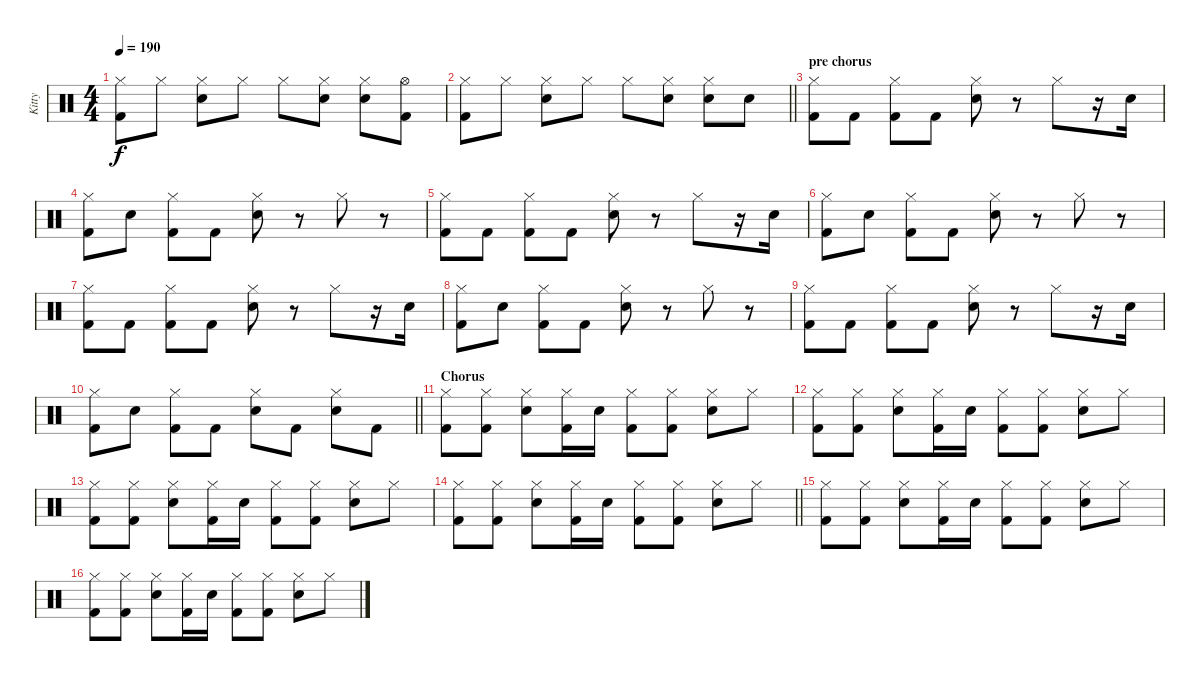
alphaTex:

\track ("Kitty" "Kitty") {instrument percussion}
\staff {score}
\articulation defaults
\ts (4 4)
\tempo 190
\clef neutral
\ks c
("Hi-Hat (closed)" "Kick (hit) 2").8{dy f} "Hi-Hat (closed)".8 ("Hi-Hat (closed)" "Snare (hit) 2").8 "Hi-Hat (closed)".8 "Hi-Hat (closed)".8 ("Hi-Hat (closed)" "Snare (hit) 2").8 ("Hi-Hat (closed)" "Snare (hit) 2").8 ("Hi-Hat (open)" "Kick (hit) 2").8 |
\barLineRight lightlight
("Hi-Hat (closed)" "Kick (hit) 2").8 "Hi-Hat (closed)".8 ("Hi-Hat (closed)" "Snare (hit) 2").8 "Hi-Hat (closed)".8 "Hi-Hat (closed)".8 ("Hi-Hat (closed)" "Snare (hit) 2").8 ("Hi-Hat (closed)" "Snare (hit) 2").8 "Snare (hit) 2".8 |
\section ("" "pre chorus")
("Hi-Hat (closed)" "Kick (hit) 2").8 "Kick (hit) 2".8 ("Hi-Hat (closed)" "Kick (hit) 2").8 "Kick (hit) 2".8 ("Hi-Hat (closed)" "Snare (hit) 2").8 r.8 "Hi-Hat (closed)".8 r.16 "Snare (hit) 2".16 |
("Hi-Hat (closed)" "Kick (hit) 2").8 "Snare (hit) 2".8 ("Hi-Hat (closed)" "Kick (hit) 2").8 "Kick (hit) 2".8 ("Hi-Hat (closed)" "Snare (hit) 2").8 r.8 "Hi-Hat (closed)".8 r.8 |
("Hi-Hat (closed)" "Kick (hit) 2").8 "Kick (hit) 2".8 ("Hi-Hat (closed)" "Kick (hit) 2").8 "Kick (hit) 2".8 ("Hi-Hat (closed)" "Snare (hit) 2").8 r.8 "Hi-Hat (closed)".8 r.16 "Snare (hit) 2".16 |
("Hi-Hat (closed)" "Kick (hit) 2").8 "Snare (hit) 2".8 ("Hi-Hat (closed)" "Kick (hit) 2").8 "Kick (hit) 2".8 ("Hi-Hat (closed)" "Snare (hit) 2").8 r.8 "Hi-Hat (closed)".8 r.8 |
("Hi-Hat (closed)" "Kick (hit) 2").8 "Kick (hit) 2".8 ("Hi-Hat (closed)" "Kick (hit) 2").8 "Kick (hit) 2".8 ("Hi-Hat (closed)" "Snare (hit) 2").8 r.8 "Hi-Hat (closed)".8 r.16 "Snare (hit) 2".16 |
("Hi-Hat (closed)" "Kick (hit) 2").8 "Snare (hit) 2".8 ("Hi-Hat (closed)" "Kick (hit) 2").8 "Kick (hit) 2".8 ("Hi-Hat (closed)" "Snare (hit) 2").8 r.8 "Hi-Hat (closed)".8 r.8 |
("Hi-Hat (closed)" "Kick (hit) 2").8 "Kick (hit) 2".8 ("Hi-Hat (closed)" "Kick (hit) 2").8 "Kick (hit) 2".8 ("Hi-Hat (closed)" "Snare (hit) 2").8 r.8 "Hi-Hat (closed)".8 r.16 "Snare (hit) 2".16 |
\barLineRight lightlight
("Hi-Hat (closed)" "Kick (hit) 2").8 "Snare (hit) 2".8 ("Hi-Hat (closed)" "Kick (hit) 2").8 "Kick (hit) 2".8 ("Hi-Hat (closed)" "Snare (hit) 2").8 "Kick (hit) 2".8 ("Hi-Hat (closed)" "Snare (hit) 2").8 "Kick (hit) 2".8 |
\section ("" "Chorus")
("Hi-Hat (closed)" "Kick (hit) 2").8 ("Hi-Hat (closed)" "Kick (hit) 2").8 ("Hi-Hat (closed)" "Snare (hit) 2").8 ("Hi-Hat (closed)" "Kick (hit) 2").16 "Snare (hit) 2".16 ("Hi-Hat (closed)" "Kick (hit) 2").8 ("Hi-Hat (closed)" "Kick (hit) 2").8 ("Hi-Hat (closed)" "Snare (hit) 2").8 "Hi-Hat (closed)".8 |
("Hi-Hat (closed)" "Kick (hit) 2").8 ("Hi-Hat (closed)" "Kick (hit) 2").8 ("Hi-Hat (closed)" "Snare (hit) 2").8 ("Hi-Hat (closed)" "Kick (hit) 2").16 "Snare (hit) 2".16 ("Hi-Hat (closed)" "Kick (hit) 2").8 ("Hi-Hat (closed)" "Kick (hit) 2").8 ("Hi-Hat (closed)" "Snare (hit) 2").8 "Hi-Hat (closed)".8 |
("Hi-Hat (closed)" "Kick (hit) 2").8 ("Hi-Hat (closed)" "Kick (hit) 2").8 ("Hi-Hat (closed)" "Snare (hit) 2").8 ("Hi-Hat (closed)" "Kick (hit) 2").16 "Snare (hit) 2".16 ("Hi-Hat (closed)" "Kick (hit) 2").8 ("Hi-Hat (closed)" "Kick (hit) 2").8 ("Hi-Hat (closed)" "Snare (hit) 2").8 "Hi-Hat (closed)".8 |
\barLineRight lightlight
("Hi-Hat (closed)" "Kick (hit) 2").8 ("Hi-Hat (closed)" "Kick (hit) 2").8 ("Hi-Hat (closed)" "Snare (hit) 2").8 ("Hi-Hat (closed)" "Kick (hit) 2").16 "Snare (hit) 2".16 ("Hi-Hat (closed)" "Kick (hit) 2").8 ("Hi-Hat (closed)" "Kick (hit) 2").8 ("Hi-Hat (closed)" "Snare (hit) 2").8 "Hi-Hat (closed)".8 |
("Hi-Hat (closed)" "Kick (hit) 2").8 ("Hi-Hat (closed)" "Kick (hit) 2").8 ("Hi-Hat (closed)" "Snare (hit) 2").8 ("Hi-Hat (closed)" "Kick (hit) 2").16 "Snare (hit) 2".16 ("Hi-Hat (closed)" "Kick (hit) 2").8 ("Hi-Hat (closed)" "Kick (hit) 2").8 ("Hi-Hat (closed)" "Snare (hit) 2").8 "Hi-Hat (closed)".8 |
("Hi-Hat (closed)" "Kick (hit) 2").8 ("Hi-Hat (closed)" "Kick (hit) 2").8 ("Hi-Hat (closed)" "Snare (hit) 2").8 ("Hi-Hat (closed)" "Kick (hit) 2").16 "Snare (hit) 2".16 ("Hi-Hat (closed)" "Kick (hit) 2").8 ("Hi-Hat (closed)" "Kick (hit) 2").8 ("Hi-Hat (closed)" "Snare (hit) 2").8 "Hi-Hat (closed)".8
